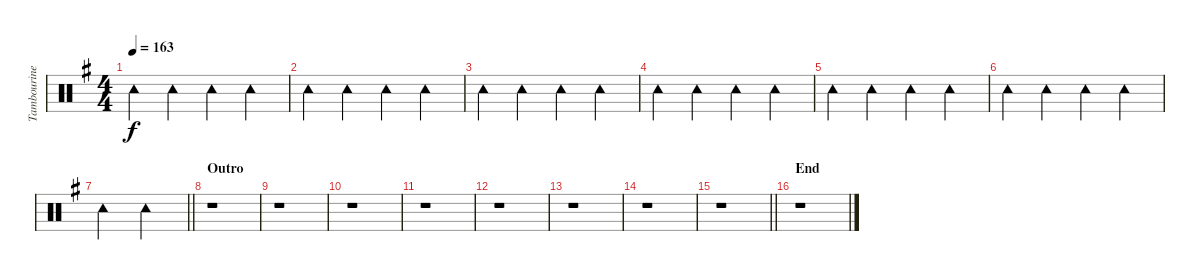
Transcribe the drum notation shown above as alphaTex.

\track ("Tambourine" "Tambourine") {instrument percussion}
\staff {score}
\articulation defaults
\ts (4 4)
\tempo 163
\clef neutral
\ks g "Tambourine (hit)".4{dy f} "Tambourine (hit)".4 "Tambourine (hit)".4 "Tambourine (hit)".4
|
"Tambourine (hit)".4 "Tambourine (hit)".4 "Tambourine (hit)".4 "Tambourine (hit)".4 |
"Tambourine (hit)".4 "Tambourine (hit)".4 "Tambourine (hit)".4 "Tambourine (hit)".4 |
"Tambourine (hit)".4 "Tambourine (hit)".4 "Tambourine (hit)".4 "Tambourine (hit)".4 |
"Tambourine (hit)".4 "Tambourine (hit)".4 "Tambourine (hit)".4 "Tambourine (hit)".4 |
"Tambourine (hit)".4 "Tambourine (hit)".4 "Tambourine (hit)".4 "Tambourine (hit)".4 |
\barLineRight lightlight "Tambourine (hit)".2 "Tambourine (hit)".2
|
\section ("" "Outro")
r.1 |
r.1 |
r.1 |
r.1 |
r.1 |
r.1 |
r.1 |
\barLineRight lightlight
r.1 |
\section ("" "End")
r.1
